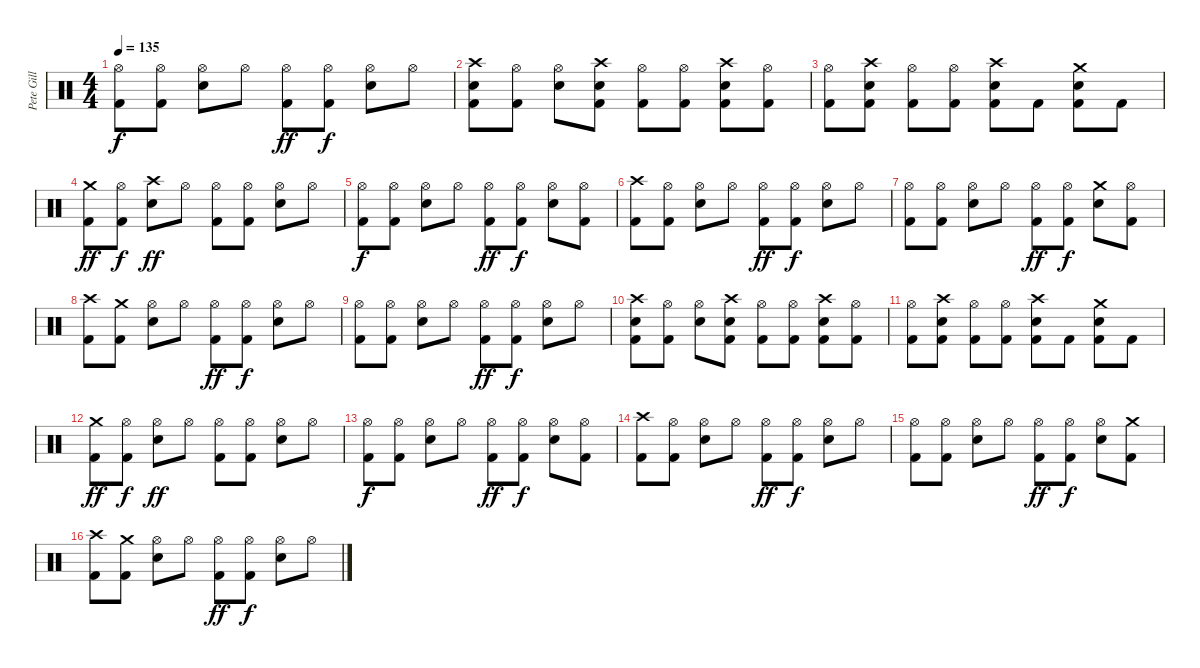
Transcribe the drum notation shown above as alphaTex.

\track ("Pete Gill" "Pete Gill") {instrument percussion}
\staff {score}
\articulation defaults
\ts (4 4)
\tempo 135
\clef neutral
\ks c
("Hi-Hat (open)" "Kick (hit) 2").8{dy f} ("Hi-Hat (open)" "Kick (hit) 2").8 ("Hi-Hat (open)" "Snare (hit) 2").8 "Hi-Hat (open)".8 ("Hi-Hat (open)" "Kick (hit) 2").8{dy ff} ("Hi-Hat (open)" "Kick (hit) 2").8{dy f} ("Hi-Hat (open)" "Snare (hit) 2").8 "Hi-Hat (open)".8 |
("Crash high (hit)" "Snare (hit) 2" "Kick (hit) 2").8 ("Hi-Hat (open)" "Kick (hit) 2").8 ("Hi-Hat (open)" "Snare (hit) 2").8 ("Crash high (hit)" "Snare (hit) 2" "Kick (hit) 2").8 ("Hi-Hat (open)" "Kick (hit) 2").8 ("Hi-Hat (open)" "Kick (hit) 2").8 ("Crash high (hit)" "Snare (hit) 2" "Kick (hit) 2").8 ("Hi-Hat (open)" "Kick (hit) 2").8 |
("Hi-Hat (open)" "Kick (hit) 2").8 ("Crash high (hit)" "Snare (hit) 2" "Kick (hit) 2").8 ("Hi-Hat (open)" "Kick (hit) 2").8 ("Hi-Hat (open)" "Kick (hit) 2").8 ("Crash high (hit)" "Snare (hit) 2" "Kick (hit) 2").8 "Kick (hit) 2".8 ("Snare (hit) 2" "Kick (hit) 2" "Crash medium (hit)").8 "Kick (hit) 2".8 |
("Crash medium (hit)" "Kick (hit) 2").8{dy ff} ("Hi-Hat (open)" "Kick (hit) 2").8{dy f} ("Crash high (hit)" "Snare (hit) 2").8{dy ff} "Hi-Hat (open)".8 ("Hi-Hat (open)" "Kick (hit) 2").8 ("Hi-Hat (open)" "Kick (hit) 2").8 ("Hi-Hat (open)" "Snare (hit) 2").8 "Hi-Hat (open)".8 |
("Hi-Hat (open)" "Kick (hit) 2").8{dy f} ("Hi-Hat (open)" "Kick (hit) 2").8 ("Hi-Hat (open)" "Snare (hit) 2").8 "Hi-Hat (open)".8 ("Hi-Hat (open)" "Kick (hit) 2").8{dy ff} ("Hi-Hat (open)" "Kick (hit) 2").8{dy f} ("Hi-Hat (open)" "Snare (hit) 2").8 ("Hi-Hat (open)" "Kick (hit) 2").8 |
("Crash high (hit)" "Kick (hit) 2").8 ("Hi-Hat (open)" "Kick (hit) 2").8 ("Hi-Hat (open)" "Snare (hit) 2").8 "Hi-Hat (open)".8 ("Hi-Hat (open)" "Kick (hit) 2").8{dy ff} ("Hi-Hat (open)" "Kick (hit) 2").8{dy f} ("Hi-Hat (open)" "Snare (hit) 2").8 "Hi-Hat (open)".8 |
("Hi-Hat (open)" "Kick (hit) 2").8 ("Hi-Hat (open)" "Kick (hit) 2").8 ("Hi-Hat (open)" "Snare (hit) 2").8 "Hi-Hat (open)".8 ("Hi-Hat (open)" "Kick (hit) 2").8{dy ff} ("Hi-Hat (open)" "Kick (hit) 2").8{dy f} ("Crash medium (hit)" "Snare (hit) 2").8 ("Kick (hit) 2" "Hi-Hat (open)").8 |
("Crash high (hit)" "Kick (hit) 2").8 ("Crash medium (hit)" "Kick (hit) 2").8 ("Hi-Hat (open)" "Snare (hit) 2").8 "Hi-Hat (open)".8 ("Hi-Hat (open)" "Kick (hit) 2").8{dy ff} ("Hi-Hat (open)" "Kick (hit) 2").8{dy f} ("Hi-Hat (open)" "Snare (hit) 2").8 "Hi-Hat (open)".8 |
("Hi-Hat (open)" "Kick (hit) 2").8 ("Hi-Hat (open)" "Kick (hit) 2").8 ("Hi-Hat (open)" "Snare (hit) 2").8 "Hi-Hat (open)".8 ("Hi-Hat (open)" "Kick (hit) 2").8{dy ff} ("Hi-Hat (open)" "Kick (hit) 2").8{dy f} ("Hi-Hat (open)" "Snare (hit) 2").8 "Hi-Hat (open)".8 |
("Crash high (hit)" "Snare (hit) 2" "Kick (hit) 2").8 ("Hi-Hat (open)" "Kick (hit) 2").8 ("Hi-Hat (open)" "Snare (hit) 2").8 ("Crash high (hit)" "Snare (hit) 2" "Kick (hit) 2").8 ("Hi-Hat (open)" "Kick (hit) 2").8 ("Hi-Hat (open)" "Kick (hit) 2").8 ("Crash high (hit)" "Snare (hit) 2" "Kick (hit) 2").8 ("Hi-Hat (open)" "Kick (hit) 2").8 |
("Hi-Hat (open)" "Kick (hit) 2").8 ("Crash high (hit)" "Snare (hit) 2" "Kick (hit) 2").8 ("Hi-Hat (open)" "Kick (hit) 2").8 ("Hi-Hat (open)" "Kick (hit) 2").8 ("Crash high (hit)" "Snare (hit) 2" "Kick (hit) 2").8 "Kick (hit) 2".8 ("Snare (hit) 2" "Kick (hit) 2" "Crash medium (hit)").8 "Kick (hit) 2".8 |
("Crash medium (hit)" "Kick (hit) 2").8{dy ff} ("Hi-Hat (open)" "Kick (hit) 2").8{dy f} ("Hi-Hat (open)" "Snare (hit) 2").8{dy ff} "Hi-Hat (open)".8 ("Hi-Hat (open)" "Kick (hit) 2").8 ("Hi-Hat (open)" "Kick (hit) 2").8 ("Hi-Hat (open)" "Snare (hit) 2").8 "Hi-Hat (open)".8 |
("Hi-Hat (open)" "Kick (hit) 2").8{dy f} ("Hi-Hat (open)" "Kick (hit) 2").8 ("Hi-Hat (open)" "Snare (hit) 2").8 "Hi-Hat (open)".8 ("Hi-Hat (open)" "Kick (hit) 2").8{dy ff} ("Hi-Hat (open)" "Kick (hit) 2").8{dy f} ("Hi-Hat (open)" "Snare (hit) 2").8 ("Hi-Hat (open)" "Kick (hit) 2").8 |
("Crash high (hit)" "Kick (hit) 2").8 ("Hi-Hat (open)" "Kick (hit) 2").8 ("Hi-Hat (open)" "Snare (hit) 2").8 "Hi-Hat (open)".8 ("Hi-Hat (open)" "Kick (hit) 2").8{dy ff} ("Hi-Hat (open)" "Kick (hit) 2").8{dy f} ("Hi-Hat (open)" "Snare (hit) 2").8 "Hi-Hat (open)".8 |
("Hi-Hat (open)" "Kick (hit) 2").8 ("Hi-Hat (open)" "Kick (hit) 2").8 ("Hi-Hat (open)" "Snare (hit) 2").8 "Hi-Hat (open)".8 ("Hi-Hat (open)" "Kick (hit) 2").8{dy ff} ("Hi-Hat (open)" "Kick (hit) 2").8{dy f} ("Hi-Hat (open)" "Snare (hit) 2").8 ("Kick (hit) 2" "Crash medium (hit)").8 |
("Crash high (hit)" "Kick (hit) 2").8 ("Crash medium (hit)" "Kick (hit) 2").8 ("Hi-Hat (open)" "Snare (hit) 2").8 "Hi-Hat (open)".8 ("Hi-Hat (open)" "Kick (hit) 2").8{dy ff} ("Hi-Hat (open)" "Kick (hit) 2").8{dy f} ("Hi-Hat (open)" "Snare (hit) 2").8 "Hi-Hat (open)".8
